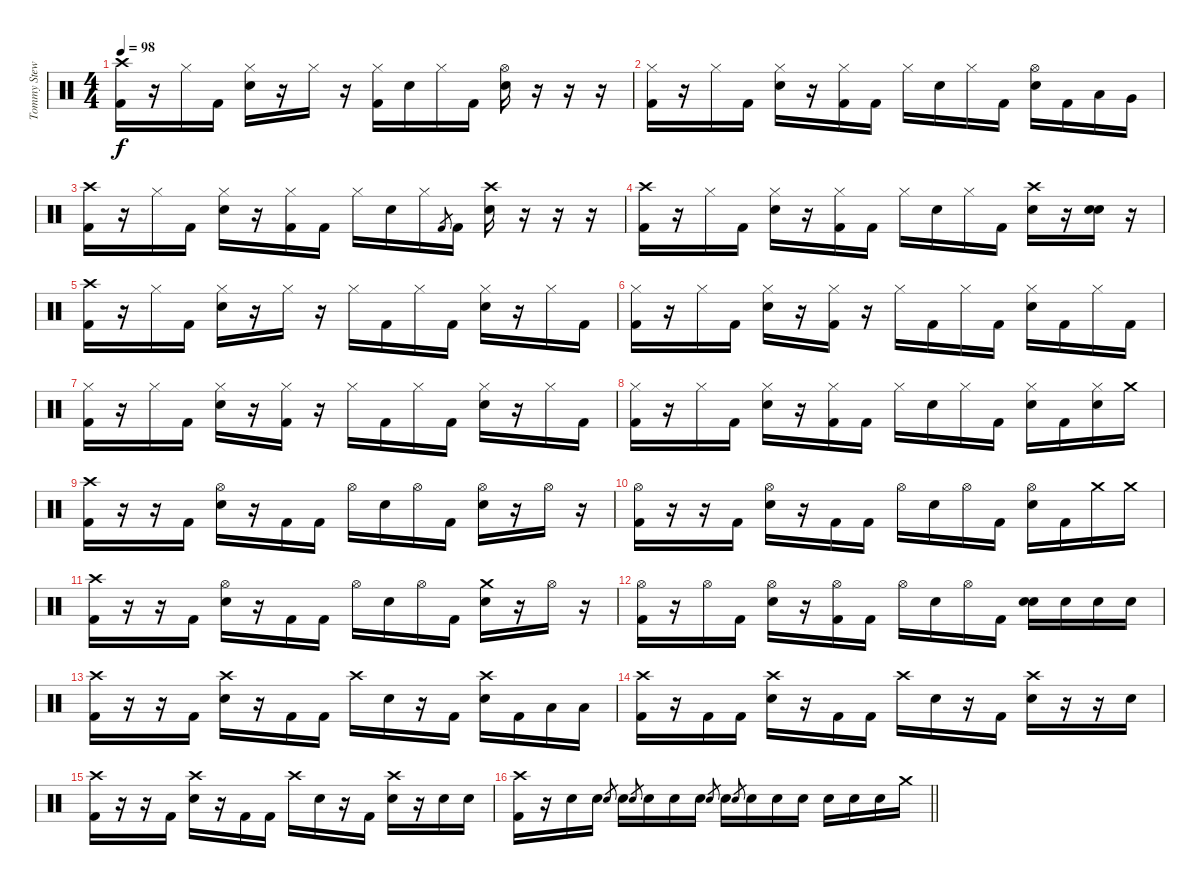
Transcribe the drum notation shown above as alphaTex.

\track ("Tommy Stewart - Drums" "Tommy Stew") {instrument percussion}
\staff {score}
\articulation defaults
\ts (4 4)
\tempo 98
\clef neutral
\ks c
("Crash high (hit)" "Kick (hit) 2").16{dy f} r.16 "Hi-Hat (closed)".16 "Kick (hit) 2".16 ("Hi-Hat (closed)" "Snare (hit) 2").16 r.16 "Hi-Hat (closed)".16 r.16 ("Hi-Hat (closed)" "Kick (hit) 2").16 "Snare (hit) 2".16 "Hi-Hat (closed)".16 "Kick (hit) 2".16 ("Hi-Hat (open)" "Snare (hit) 2").16 r.16 r.16 r.16 |
("Hi-Hat (closed)" "Kick (hit) 2").16 r.16 "Hi-Hat (closed)".16 "Kick (hit) 2".16 ("Hi-Hat (closed)" "Snare (hit) 2").16 r.16 ("Hi-Hat (closed)" "Kick (hit) 2").16 "Kick (hit) 2".16 "Hi-Hat (closed)".16 "Snare (hit) 2".16 "Hi-Hat (closed)".16 "Kick (hit) 2".16 ("Hi-Hat (open)" "Snare (hit) 2").16 "Kick (hit) 2".16 "Low Tom (hit)".16 "Very Low Tom (hit)".16 |
("Crash high (hit)" "Kick (hit) 2").16 r.16 "Hi-Hat (closed)".16 "Kick (hit) 2".16 ("Hi-Hat (closed)" "Snare (hit) 2").16 r.16 ("Hi-Hat (closed)" "Kick (hit) 2").16 "Kick (hit) 2".16 "Hi-Hat (closed)".16 "Snare (hit) 2".16 "Hi-Hat (closed)".16 "Kick (hit) 2".8{gr} "Kick (hit) 2".16 ("Crash high (hit)" "Snare (hit) 2").16 r.16 r.16 r.16 |
("Crash high (hit)" "Kick (hit) 2").16 r.16 "Hi-Hat (closed)".16 "Kick (hit) 2".16 ("Hi-Hat (closed)" "Snare (hit) 2").16 r.16 ("Hi-Hat (closed)" "Kick (hit) 2").16 "Kick (hit) 2".16 "Hi-Hat (closed)".16 "Snare (hit) 2".16 "Hi-Hat (closed)".16 "Kick (hit) 2".16 ("Crash high (hit)" "Snare (hit) 2").16 r.16 ("Snare (hit) 2" "Snare (hit) 2").16 r.16 |
("Crash high (hit)" "Kick (hit) 2").16 r.16 "Hi-Hat (closed)".16 "Kick (hit) 2".16 ("Hi-Hat (closed)" "Snare (hit) 2").16 r.16 "Hi-Hat (closed)".16 r.16 "Hi-Hat (closed)".16 "Kick (hit) 2".16 "Hi-Hat (closed)".16 "Kick (hit) 2".16 ("Hi-Hat (closed)" "Snare (hit) 2").16 r.16 "Hi-Hat (closed)".16 "Kick (hit) 2".16 |
("Hi-Hat (closed)" "Kick (hit) 2").16 r.16 "Hi-Hat (closed)".16 "Kick (hit) 2".16 ("Hi-Hat (closed)" "Snare (hit) 2").16 r.16 ("Hi-Hat (closed)" "Kick (hit) 2").16 r.16 "Hi-Hat (closed)".16 "Kick (hit) 2".16 "Hi-Hat (closed)".16 "Kick (hit) 2".16 ("Hi-Hat (closed)" "Snare (hit) 2").16 "Kick (hit) 2".16 "Hi-Hat (closed)".16 "Kick (hit) 2".16 |
("Hi-Hat (closed)" "Kick (hit) 2").16 r.16 "Hi-Hat (closed)".16 "Kick (hit) 2".16 ("Hi-Hat (closed)" "Snare (hit) 2").16 r.16 ("Hi-Hat (closed)" "Kick (hit) 2").16 r.16 "Hi-Hat (closed)".16 "Kick (hit) 2".16 "Hi-Hat (closed)".16 "Kick (hit) 2".16 ("Hi-Hat (closed)" "Snare (hit) 2").16 r.16 "Hi-Hat (closed)".16 "Kick (hit) 2".16 |
("Hi-Hat (closed)" "Kick (hit) 2").16 r.16 "Hi-Hat (closed)".16 "Kick (hit) 2".16 ("Hi-Hat (closed)" "Snare (hit) 2").16 r.16 ("Hi-Hat (closed)" "Kick (hit) 2").16 "Kick (hit) 2".16 "Hi-Hat (closed)".16 "Snare (hit) 2".16 "Hi-Hat (closed)".16 "Kick (hit) 2".16 ("Hi-Hat (closed)" "Snare (hit) 2").16 "Kick (hit) 2".16 ("Hi-Hat (closed)" "Snare (hit) 2").16 "Crash medium (hit)".16 |
("Crash high (hit)" "Kick (hit) 2").16 r.16 r.16 "Kick (hit) 2".16 ("Hi-Hat (open)" "Snare (hit) 2").16 r.16 "Kick (hit) 2".16 "Kick (hit) 2".16 "Hi-Hat (open)".16 "Snare (hit) 2".16 "Hi-Hat (open)".16 "Kick (hit) 2".16 ("Hi-Hat (open)" "Snare (hit) 2").16 r.16 "Hi-Hat (open)".16 r.16 |
("Hi-Hat (open)" "Kick (hit) 2").16 r.16 r.16 "Kick (hit) 2".16 ("Hi-Hat (open)" "Snare (hit) 2").16 r.16 "Kick (hit) 2".16 "Kick (hit) 2".16 "Hi-Hat (open)".16 "Snare (hit) 2".16 "Hi-Hat (open)".16 "Kick (hit) 2".16 ("Hi-Hat (open)" "Snare (hit) 2").16 "Kick (hit) 2".16 "Crash medium (hit)".16 "Crash medium (hit)".16 |
("Crash high (hit)" "Kick (hit) 2").16 r.16 r.16 "Kick (hit) 2".16 ("Hi-Hat (open)" "Snare (hit) 2").16 r.16 "Kick (hit) 2".16 "Kick (hit) 2".16 "Hi-Hat (open)".16 "Snare (hit) 2".16 "Hi-Hat (open)".16 "Kick (hit) 2".16 ("Crash medium (hit)" "Snare (hit) 2").16 r.16 "Hi-Hat (open)".16 r.16 |
("Hi-Hat (open)" "Kick (hit) 2").16 r.16 "Hi-Hat (open)".16 "Kick (hit) 2".16 ("Hi-Hat (open)" "Snare (hit) 2").16 r.16 ("Hi-Hat (open)" "Kick (hit) 2").16 "Kick (hit) 2".16 "Hi-Hat (open)".16 "Snare (hit) 2".16 "Hi-Hat (open)".16 "Kick (hit) 2".16 ("Snare (hit) 2" "Snare (hit) 2").16 "Snare (hit) 2".16 "Snare (hit) 2".16 "Snare (hit) 2".16 |
("Crash high (hit)" "Kick (hit) 2").16 r.16 r.16 "Kick (hit) 2".16 ("Crash high (hit)" "Snare (hit) 2").16 r.16 "Kick (hit) 2".16 "Kick (hit) 2".16 "Crash high (hit)".16 "Snare (hit) 2".16 r.16 "Kick (hit) 2".16 ("Crash high (hit)" "Snare (hit) 2").16 "Kick (hit) 2".16 "Low Tom (hit)".16 "Low Tom (hit)".16 |
("Crash high (hit)" "Kick (hit) 2").16 r.16 "Kick (hit) 2".16 "Kick (hit) 2".16 ("Crash high (hit)" "Snare (hit) 2").16 r.16 "Kick (hit) 2".16 "Kick (hit) 2".16 "Crash high (hit)".16 "Snare (hit) 2".16 r.16 "Kick (hit) 2".16 ("Crash high (hit)" "Snare (hit) 2").16 r.16 r.16 "Snare (hit) 2".16 |
("Crash high (hit)" "Kick (hit) 2").16 r.16 r.16 "Kick (hit) 2".16 ("Crash high (hit)" "Snare (hit) 2").16 r.16 "Kick (hit) 2".16 "Kick (hit) 2".16 "Crash high (hit)".16 "Snare (hit) 2".16 r.16 "Kick (hit) 2".16 ("Crash high (hit)" "Snare (hit) 2").16 r.16 "Snare (hit) 2".16 "Snare (hit) 2".16 |
\barLineRight lightlight
("Crash high (hit)" "Kick (hit) 2").16 r.16 "Snare (hit) 2".16 "Snare (hit) 2".16 "Snare (hit) 2".8{gr} "Snare (hit) 2".16 "Snare (hit) 2".8{gr} "Snare (hit) 2".16 "Snare (hit) 2".16 "Snare (hit) 2".16 "Snare (hit) 2".8{gr} "Snare (hit) 2".16 "Snare (hit) 2".8{gr} "Snare (hit) 2".16 "Snare (hit) 2".16 "Snare (hit) 2".16 "Snare (hit) 2".16 "Snare (hit) 2".16 "Snare (hit) 2".16 "Crash medium (hit)".16
